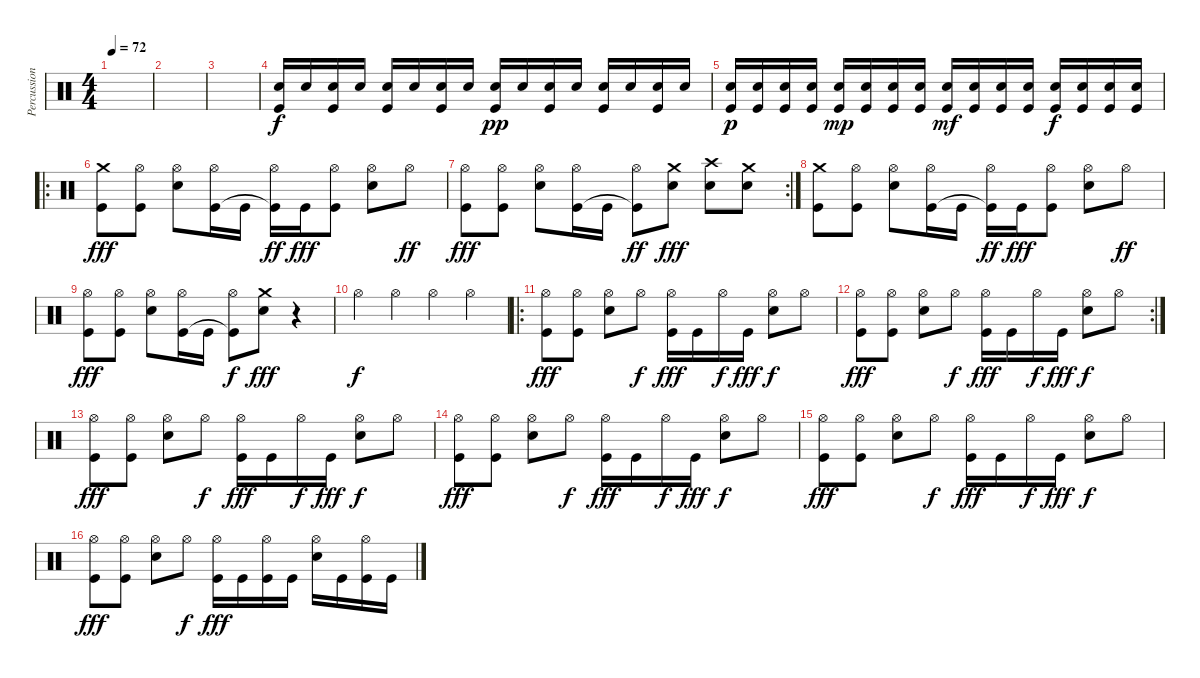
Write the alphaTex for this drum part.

\track ("Percussions" "Percussion") {instrument percussion}
\staff {score}
\articulation defaults
\ts (4 4)
\tempo 72
\clef neutral
\ks c
|
|
|
("Snare (hit) 2" "Kick (hit)").16 "Snare (hit) 2".16 ("Snare (hit) 2" "Kick (hit)").16 "Snare (hit) 2".16 ("Snare (hit) 2" "Kick (hit)").16 "Snare (hit) 2".16 ("Snare (hit) 2" "Kick (hit)").16 "Snare (hit) 2".16 ("Snare (hit) 2" "Kick (hit)").16{dy pp} "Snare (hit) 2".16 ("Snare (hit) 2" "Kick (hit)").16 "Snare (hit) 2".16 ("Snare (hit) 2" "Kick (hit)").16 "Snare (hit) 2".16 ("Snare (hit) 2" "Kick (hit)").16 "Snare (hit) 2".16 |
("Snare (hit) 2" "Kick (hit)").16{dy p} ("Snare (hit) 2" "Kick (hit)").16 ("Snare (hit) 2" "Kick (hit)").16 ("Snare (hit) 2" "Kick (hit)").16 ("Snare (hit) 2" "Kick (hit)").16{dy mp} ("Snare (hit) 2" "Kick (hit)").16 ("Snare (hit) 2" "Kick (hit)").16 ("Snare (hit) 2" "Kick (hit)").16 ("Snare (hit) 2" "Kick (hit)").16{dy mf} ("Snare (hit) 2" "Kick (hit)").16 ("Snare (hit) 2" "Kick (hit)").16 ("Snare (hit) 2" "Kick (hit)").16 ("Snare (hit) 2" "Kick (hit)").16{dy f} ("Snare (hit) 2" "Kick (hit)").16 ("Snare (hit) 2" "Kick (hit)").16 ("Snare (hit) 2" "Kick (hit)").16 |
\ro
("Crash medium (hit)" "Kick (hit)").8{dy fff} ("Hi-Hat (open)" "Kick (hit)").8 ("Hi-Hat (open)" "Snare (hit) 2").8 ("Hi-Hat (open)" "Kick (hit)").16 "Kick (hit)".16 ("Hi-Hat (open)" "Kick (hit)"{t}).16{dy ff} "Kick (hit)".16{dy fff} ("Hi-Hat (open)" "Kick (hit)").8 ("Hi-Hat (open)" "Snare (hit) 2").8 "Hi-Hat (open)".8{dy ff} |
\rc 2
("Hi-Hat (open)" "Kick (hit)").8{dy fff} ("Hi-Hat (open)" "Kick (hit)").8 ("Hi-Hat (open)" "Snare (hit) 2").8 ("Hi-Hat (open)" "Kick (hit)").16 "Kick (hit)".16 ("Hi-Hat (open)" "Kick (hit)"{t}).8{dy ff} ("Crash medium (hit)" "Snare (hit) 2").8{dy fff} ("Crash high (hit)" "Snare (hit) 2").8 ("Crash medium (hit)" "Snare (hit) 2").8 |
("Crash medium (hit)" "Kick (hit)").8 ("Hi-Hat (open)" "Kick (hit)").8 ("Hi-Hat (open)" "Snare (hit) 2").8 ("Hi-Hat (open)" "Kick (hit)").16 "Kick (hit)".16 ("Hi-Hat (open)" "Kick (hit)"{t}).16{dy ff} "Kick (hit)".16{dy fff} ("Hi-Hat (open)" "Kick (hit)").8 ("Hi-Hat (open)" "Snare (hit) 2").8 "Hi-Hat (open)".8{dy ff} |
("Hi-Hat (open)" "Kick (hit)").8{dy fff} ("Hi-Hat (open)" "Kick (hit)").8 ("Hi-Hat (open)" "Snare (hit) 2").8 ("Hi-Hat (open)" "Kick (hit)").16 "Kick (hit)".16 ("Hi-Hat (open)" "Kick (hit)"{t}).8{dy f} ("Crash medium (hit)" "Snare (hit) 2").8{dy fff} r.4 |
"Hi-Hat (open)".4{dy f} "Hi-Hat (open)".4 "Hi-Hat (open)".4 "Hi-Hat (open)".4 |
\ro
("Hi-Hat (open)" "Kick (hit)").8{dy fff} ("Hi-Hat (open)" "Kick (hit)").8 ("Hi-Hat (open)" "Snare (hit) 2").8 "Hi-Hat (open)".8{dy f} ("Hi-Hat (open)" "Kick (hit)").16{dy fff} "Kick (hit)".16 "Hi-Hat (open)".16{dy f} "Kick (hit)".16{dy fff} ("Hi-Hat (open)" "Snare (hit) 2").8{dy f} "Hi-Hat (open)".8 |
\rc 2
("Hi-Hat (open)" "Kick (hit)").8{dy fff} ("Hi-Hat (open)" "Kick (hit)").8 ("Hi-Hat (open)" "Snare (hit) 2").8 "Hi-Hat (open)".8{dy f} ("Hi-Hat (open)" "Kick (hit)").16{dy fff} "Kick (hit)".16 "Hi-Hat (open)".16{dy f} "Kick (hit)".16{dy fff} ("Hi-Hat (open)" "Snare (hit) 2").8{dy f} "Hi-Hat (open)".8 |
("Hi-Hat (open)" "Kick (hit)").8{dy fff} ("Hi-Hat (open)" "Kick (hit)").8 ("Hi-Hat (open)" "Snare (hit) 2").8 "Hi-Hat (open)".8{dy f} ("Hi-Hat (open)" "Kick (hit)").16{dy fff} "Kick (hit)".16 "Hi-Hat (open)".16{dy f} "Kick (hit)".16{dy fff} ("Hi-Hat (open)" "Snare (hit) 2").8{dy f} "Hi-Hat (open)".8 |
("Hi-Hat (open)" "Kick (hit)").8{dy fff} ("Hi-Hat (open)" "Kick (hit)").8 ("Hi-Hat (open)" "Snare (hit) 2").8 "Hi-Hat (open)".8{dy f} ("Hi-Hat (open)" "Kick (hit)").16{dy fff} "Kick (hit)".16 "Hi-Hat (open)".16{dy f} "Kick (hit)".16{dy fff} ("Hi-Hat (open)" "Snare (hit) 2").8{dy f} "Hi-Hat (open)".8 |
("Hi-Hat (open)" "Kick (hit)").8{dy fff} ("Hi-Hat (open)" "Kick (hit)").8 ("Hi-Hat (open)" "Snare (hit) 2").8 "Hi-Hat (open)".8{dy f} ("Hi-Hat (open)" "Kick (hit)").16{dy fff} "Kick (hit)".16 "Hi-Hat (open)".16{dy f} "Kick (hit)".16{dy fff} ("Hi-Hat (open)" "Snare (hit) 2").8{dy f} "Hi-Hat (open)".8 |
("Hi-Hat (open)" "Kick (hit)").8{dy fff} ("Hi-Hat (open)" "Kick (hit)").8 ("Hi-Hat (open)" "Snare (hit) 2").8 "Hi-Hat (open)".8{dy f} ("Hi-Hat (open)" "Kick (hit)").16{dy fff} "Kick (hit)".16 ("Hi-Hat (open)" "Kick (hit)").16 "Kick (hit)".16 ("Hi-Hat (open)" "Snare (hit) 2").16 "Kick (hit)".16 ("Hi-Hat (open)" "Kick (hit)").16 "Kick (hit)".16
